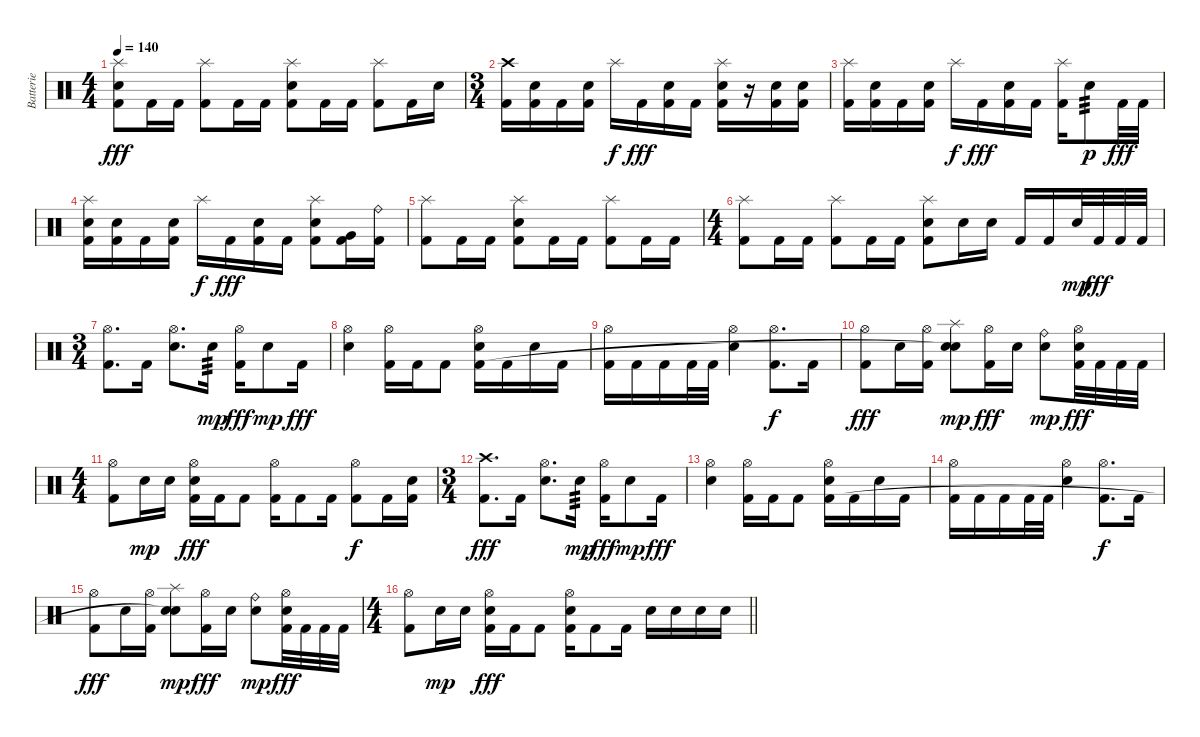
\track ("Batterie" "Batterie") {instrument percussion}
\staff {score}
\articulation defaults
\ts (4 4)
\tempo 140
\clef neutral
\ks c
("Splash (hit)" "Electric Snare (hit)" "Kick (hit) 2").8{dy fff} "Kick (hit) 2".16 "Kick (hit) 2".16 ("Splash (hit)" "Kick (hit) 2").8 "Kick (hit) 2".16 "Kick (hit) 2".16 ("Splash (hit)" "Electric Snare (hit)" "Kick (hit) 2").8 "Kick (hit) 2".16 "Kick (hit) 2".16 ("Splash (hit)" "Kick (hit) 2").8 "Kick (hit) 2".16 "Electric Snare (hit)".16 |
\ts (3 4)
("Crash high (hit)" "Kick (hit) 2").16 ("Electric Snare (hit)" "Kick (hit) 2").16 "Kick (hit) 2".16 ("Electric Snare (hit)" "Kick (hit) 2").16 "Splash (hit)".16{dy f} "Kick (hit) 2".16{dy fff} ("Electric Snare (hit)" "Kick (hit) 2").16 "Kick (hit) 2".16 ("Splash (hit)" "Electric Snare (hit)" "Kick (hit) 2").16 r.16 ("Electric Snare (hit)" "Kick (hit) 2").16 ("Electric Snare (hit)" "Kick (hit) 2").16 |
("Splash (hit)" "Kick (hit) 2").16 ("Electric Snare (hit)" "Kick (hit) 2").16 "Kick (hit) 2".16 ("Electric Snare (hit)" "Kick (hit) 2").16 "Splash (hit)".16{dy f} "Kick (hit) 2".16{dy fff} ("Electric Snare (hit)" "Kick (hit) 2").16 "Kick (hit) 2".16 ("Splash (hit)" "Kick (hit) 2").16 "Electric Snare (hit)".8{tp 3 dy p} "Kick (hit) 2".32{dy fff} "Kick (hit) 2".32 |
("Splash (hit)" "Electric Snare (hit)" "Kick (hit) 2").16 ("Electric Snare (hit)" "Kick (hit) 2").16 "Kick (hit) 2".16 ("Electric Snare (hit)" "Kick (hit) 2").16 "Splash (hit)".16{dy f} "Kick (hit) 2".16{dy fff} ("Electric Snare (hit)" "Kick (hit) 2").16 "Kick (hit) 2".16 ("Splash (hit)" "Electric Snare (hit)" "Kick (hit) 2").8 ("Very Low Tom (hit)" "Kick (hit) 2").16 ("Ride (bell)" "Kick (hit) 2").16 |
("Splash (hit)" "Kick (hit) 2").8 "Kick (hit) 2".16 "Kick (hit) 2".16 ("Splash (hit)" "Electric Snare (hit)" "Kick (hit) 2").8 "Kick (hit) 2".16 "Kick (hit) 2".16 ("Splash (hit)" "Kick (hit) 2").8 "Kick (hit) 2".16 "Kick (hit) 2".16 |
\ts (4 4)
("Splash (hit)" "Kick (hit) 2").8 "Kick (hit) 2".16 "Kick (hit) 2".16 ("Splash (hit)" "Kick (hit) 2").8 "Kick (hit) 2".16 "Kick (hit) 2".16 ("Splash (hit)" "Electric Snare (hit)" "Kick (hit) 2").8 "Electric Snare (hit)".16 "Electric Snare (hit)".16 "Kick (hit) 2".16 "Kick (hit) 2".16 "Electric Snare (hit)".32{dy mp} "Kick (hit) 2".32{dy fff} "Kick (hit) 2".32 "Kick (hit) 2".32 |
\ts (3 4)
("Hi-Hat (open)" "Kick (hit) 2").8{d} "Kick (hit) 2".16 ("Hi-Hat (open)" "Electric Snare (hit)").8{d} "Electric Snare (hit)".16{tp 3 dy mp} ("Hi-Hat (open)" "Kick (hit) 2").16{dy fff} "Electric Snare (hit)".8{dy mp} "Kick (hit) 2".16{dy fff} |
("Hi-Hat (open)" "Electric Snare (hit)").4 ("Hi-Hat (open)" "Kick (hit) 2").16 "Kick (hit) 2".16 "Kick (hit) 2".8 ("Hi-Hat (open)" "Electric Snare (hit)" "Kick (hit) 2").16 "Kick (hit) 2".16 "Electric Snare (hit)".16 "Kick (hit) 2".16 |
("Hi-Hat (open)" "Kick (hit) 2").16 "Kick (hit) 2".16 "Kick (hit) 2".16 "Kick (hit) 2".32 "Kick (hit) 2".32 ("Hi-Hat (open)" "Electric Snare (hit)").4 ("Hi-Hat (open)" "Kick (hit) 2").8{d dy f} "Kick (hit) 2".16 |
("Hi-Hat (open)" "Kick (hit) 2").8{dy fff} "Electric Snare (hit)".16 ("Hi-Hat (open)" "Kick (hit) 2").16 ("Splash (hit)" "Electric Snare (hit)" "Snare (hit)"{t}).8{dy mp} ("Hi-Hat (open)" "Kick (hit) 2").16{dy fff} "Electric Snare (hit)".16 ("Ride (bell)" "Electric Snare (hit)").8{dy mp} ("Hi-Hat (open)" "Electric Snare (hit)" "Kick (hit) 2").32{dy fff} "Kick (hit) 2".32 "Kick (hit) 2".32 "Kick (hit) 2".32 |
\ts (4 4)
("Hi-Hat (open)" "Kick (hit) 2").8 "Electric Snare (hit)".16{dy mp} "Electric Snare (hit)".16 ("Hi-Hat (open)" "Electric Snare (hit)" "Kick (hit) 2").16{dy fff} "Kick (hit) 2".16 "Kick (hit) 2".8 ("Hi-Hat (open)" "Kick (hit) 2").16 "Kick (hit) 2".8 "Kick (hit) 2".16 ("Hi-Hat (open)" "Kick (hit) 2").8{dy f} "Kick (hit) 2".16 ("Electric Snare (hit)" "Kick (hit) 2").16 |
\ts (3 4)
("Crash high (hit)" "Kick (hit) 2").8{d dy fff} "Kick (hit) 2".16 ("Hi-Hat (open)" "Electric Snare (hit)").8{d} "Electric Snare (hit)".16{tp 3 dy mp} ("Hi-Hat (open)" "Kick (hit) 2").16{dy fff} "Electric Snare (hit)".8{dy mp} "Kick (hit) 2".16{dy fff} |
("Hi-Hat (open)" "Electric Snare (hit)").4 ("Hi-Hat (open)" "Kick (hit) 2").16 "Kick (hit) 2".16 "Kick (hit) 2".8 ("Hi-Hat (open)" "Electric Snare (hit)" "Kick (hit) 2").16 "Kick (hit) 2".16 "Electric Snare (hit)".16 "Kick (hit) 2".16 |
("Hi-Hat (open)" "Kick (hit) 2").16 "Kick (hit) 2".16 "Kick (hit) 2".16 "Kick (hit) 2".32 "Kick (hit) 2".32 ("Hi-Hat (open)" "Electric Snare (hit)").4 ("Hi-Hat (open)" "Kick (hit) 2").8{d dy f} "Kick (hit) 2".16 |
("Hi-Hat (open)" "Kick (hit) 2").8{dy fff} "Electric Snare (hit)".16 ("Hi-Hat (open)" "Kick (hit) 2").16 ("Splash (hit)" "Electric Snare (hit)" "Snare (hit)"{t}).8{dy mp} ("Hi-Hat (open)" "Kick (hit) 2").16{dy fff} "Electric Snare (hit)".16 ("Ride (bell)" "Electric Snare (hit)").8{dy mp} ("Hi-Hat (open)" "Electric Snare (hit)" "Kick (hit) 2").32{dy fff} "Kick (hit) 2".32 "Kick (hit) 2".32 "Kick (hit) 2".32 |
\ts (4 4)
\barLineRight lightlight
("Hi-Hat (open)" "Kick (hit) 2").8 "Electric Snare (hit)".16{dy mp} "Electric Snare (hit)".16 ("Hi-Hat (open)" "Electric Snare (hit)" "Kick (hit) 2").16{dy fff} "Kick (hit) 2".16 "Kick (hit) 2".8 ("Hi-Hat (open)" "Electric Snare (hit)" "Kick (hit) 2").16 "Kick (hit) 2".8 "Kick (hit) 2".16 "Electric Snare (hit)".16 "Electric Snare (hit)".16 "Electric Snare (hit)".16 "Electric Snare (hit)".16
